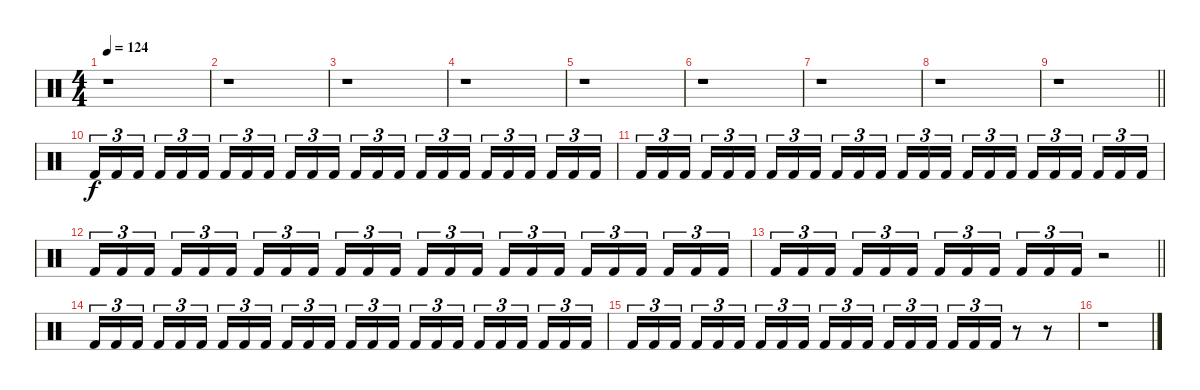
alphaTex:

\track "" {instrument percussion}
\staff {score}
\articulation defaults
\ts (4 4)
\tempo 124
\clef neutral
\ks c
r.1{dy f} |
r.1 |
r.1 |
r.1 |
r.1 |
r.1 |
r.1 |
r.1 |
\barLineRight lightlight
r.1 |
"Kick (hit) 2".16{tu (3 2)} "Kick (hit) 2".16{tu (3 2)} "Kick (hit) 2".16{tu (3 2) beam splitsecondary} "Kick (hit) 2".16{tu (3 2)} "Kick (hit) 2".16{tu (3 2)} "Kick (hit) 2".16{tu (3 2)} "Kick (hit) 2".16{tu (3 2)} "Kick (hit) 2".16{tu (3 2)} "Kick (hit) 2".16{tu (3 2) beam splitsecondary} "Kick (hit) 2".16{tu (3 2)} "Kick (hit) 2".16{tu (3 2)} "Kick (hit) 2".16{tu (3 2)} "Kick (hit) 2".16{tu (3 2)} "Kick (hit) 2".16{tu (3 2)} "Kick (hit) 2".16{tu (3 2) beam splitsecondary} "Kick (hit) 2".16{tu (3 2)} "Kick (hit) 2".16{tu (3 2)} "Kick (hit) 2".16{tu (3 2)} "Kick (hit) 2".16{tu (3 2)} "Kick (hit) 2".16{tu (3 2)} "Kick (hit) 2".16{tu (3 2) beam splitsecondary} "Kick (hit) 2".16{tu (3 2)} "Kick (hit) 2".16{tu (3 2)} "Kick (hit) 2".16{tu (3 2)} |
"Kick (hit) 2".16{tu (3 2)} "Kick (hit) 2".16{tu (3 2)} "Kick (hit) 2".16{tu (3 2) beam splitsecondary} "Kick (hit) 2".16{tu (3 2)} "Kick (hit) 2".16{tu (3 2)} "Kick (hit) 2".16{tu (3 2)} "Kick (hit) 2".16{tu (3 2)} "Kick (hit) 2".16{tu (3 2)} "Kick (hit) 2".16{tu (3 2) beam splitsecondary} "Kick (hit) 2".16{tu (3 2)} "Kick (hit) 2".16{tu (3 2)} "Kick (hit) 2".16{tu (3 2)} "Kick (hit) 2".16{tu (3 2)} "Kick (hit) 2".16{tu (3 2)} "Kick (hit) 2".16{tu (3 2) beam splitsecondary} "Kick (hit) 2".16{tu (3 2)} "Kick (hit) 2".16{tu (3 2)} "Kick (hit) 2".16{tu (3 2)} "Kick (hit) 2".16{tu (3 2)} "Kick (hit) 2".16{tu (3 2)} "Kick (hit) 2".16{tu (3 2) beam splitsecondary} "Kick (hit) 2".16{tu (3 2)} "Kick (hit) 2".16{tu (3 2)} "Kick (hit) 2".16{tu (3 2)} |
"Kick (hit) 2".16{tu (3 2)} "Kick (hit) 2".16{tu (3 2)} "Kick (hit) 2".16{tu (3 2) beam splitsecondary} "Kick (hit) 2".16{tu (3 2)} "Kick (hit) 2".16{tu (3 2)} "Kick (hit) 2".16{tu (3 2)} "Kick (hit) 2".16{tu (3 2)} "Kick (hit) 2".16{tu (3 2)} "Kick (hit) 2".16{tu (3 2) beam splitsecondary} "Kick (hit) 2".16{tu (3 2)} "Kick (hit) 2".16{tu (3 2)} "Kick (hit) 2".16{tu (3 2)} "Kick (hit) 2".16{tu (3 2)} "Kick (hit) 2".16{tu (3 2)} "Kick (hit) 2".16{tu (3 2) beam splitsecondary} "Kick (hit) 2".16{tu (3 2)} "Kick (hit) 2".16{tu (3 2)} "Kick (hit) 2".16{tu (3 2)} "Kick (hit) 2".16{tu (3 2)} "Kick (hit) 2".16{tu (3 2)} "Kick (hit) 2".16{tu (3 2) beam splitsecondary} "Kick (hit) 2".16{tu (3 2)} "Kick (hit) 2".16{tu (3 2)} "Kick (hit) 2".16{tu (3 2)} |
\barLineRight lightlight "Kick (hit) 2".16{tu (3 2)} "Kick (hit) 2".16{tu (3 2)} "Kick (hit) 2".16{tu (3 2) beam splitsecondary} "Kick (hit) 2".16{tu (3 2)} "Kick (hit) 2".16{tu (3 2)} "Kick (hit) 2".16{tu (3 2)} "Kick (hit) 2".16{tu (3 2)} "Kick (hit) 2".16{tu (3 2)} "Kick (hit) 2".16{tu (3 2) beam splitsecondary} "Kick (hit) 2".16{tu (3 2)} "Kick (hit) 2".16{tu (3 2)} "Kick (hit) 2".16{tu (3 2)}
r.2 |
"Kick (hit) 2".16{tu (3 2)} "Kick (hit) 2".16{tu (3 2)} "Kick (hit) 2".16{tu (3 2) beam splitsecondary} "Kick (hit) 2".16{tu (3 2)} "Kick (hit) 2".16{tu (3 2)} "Kick (hit) 2".16{tu (3 2)} "Kick (hit) 2".16{tu (3 2)} "Kick (hit) 2".16{tu (3 2)} "Kick (hit) 2".16{tu (3 2) beam splitsecondary} "Kick (hit) 2".16{tu (3 2)} "Kick (hit) 2".16{tu (3 2)} "Kick (hit) 2".16{tu (3 2)} "Kick (hit) 2".16{tu (3 2)} "Kick (hit) 2".16{tu (3 2)} "Kick (hit) 2".16{tu (3 2) beam splitsecondary} "Kick (hit) 2".16{tu (3 2)} "Kick (hit) 2".16{tu (3 2)} "Kick (hit) 2".16{tu (3 2)} "Kick (hit) 2".16{tu (3 2)} "Kick (hit) 2".16{tu (3 2)} "Kick (hit) 2".16{tu (3 2) beam splitsecondary} "Kick (hit) 2".16{tu (3 2)} "Kick (hit) 2".16{tu (3 2)} "Kick (hit) 2".16{tu (3 2)} |
"Kick (hit) 2".16{tu (3 2)} "Kick (hit) 2".16{tu (3 2)} "Kick (hit) 2".16{tu (3 2) beam splitsecondary} "Kick (hit) 2".16{tu (3 2)} "Kick (hit) 2".16{tu (3 2)} "Kick (hit) 2".16{tu (3 2)} "Kick (hit) 2".16{tu (3 2)} "Kick (hit) 2".16{tu (3 2)} "Kick (hit) 2".16{tu (3 2) beam splitsecondary} "Kick (hit) 2".16{tu (3 2)} "Kick (hit) 2".16{tu (3 2)} "Kick (hit) 2".16{tu (3 2)} "Kick (hit) 2".16{tu (3 2)} "Kick (hit) 2".16{tu (3 2)} "Kick (hit) 2".16{tu (3 2) beam splitsecondary} "Kick (hit) 2".16{tu (3 2)} "Kick (hit) 2".16{tu (3 2)} "Kick (hit) 2".16{tu (3 2)} r.8 r.8 |
r.1
